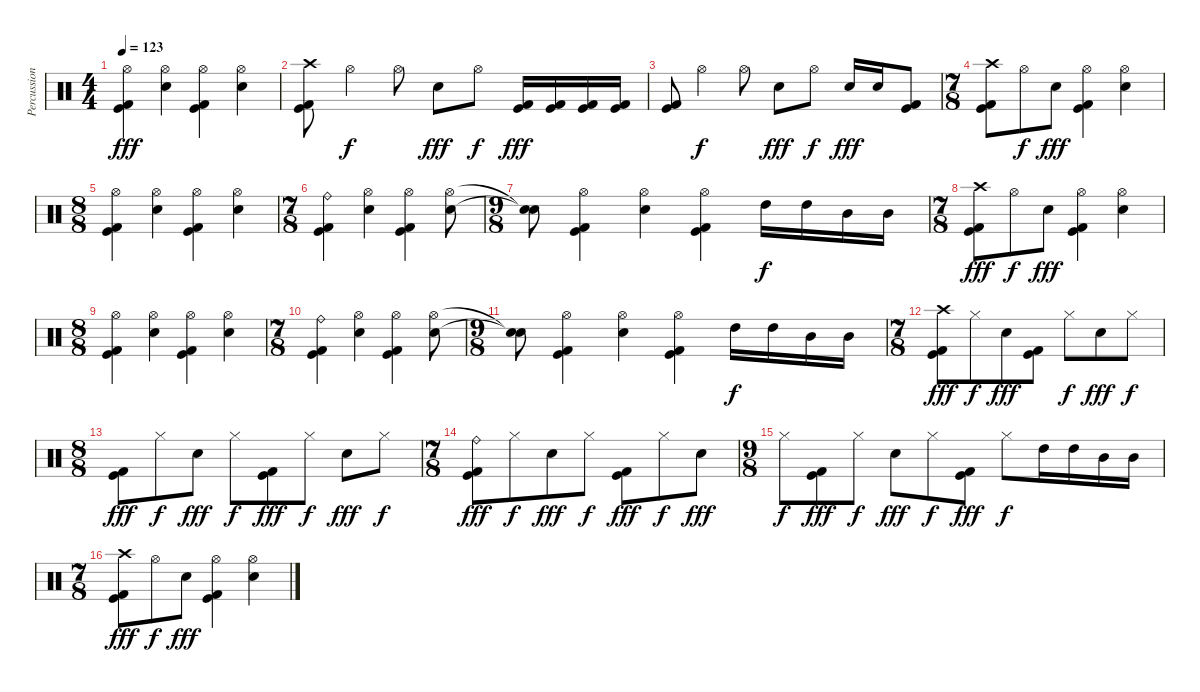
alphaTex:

\track ("Percussion" "Percussion") {instrument percussion}
\staff {score}
\articulation defaults
\ts (4 4)
\tempo 123
\clef neutral
\ks c
("Hi-Hat (open)" "Kick (hit) 2" "Kick (hit)").4{dy fff} ("Hi-Hat (open)" "Electric Snare (hit)").4 ("Hi-Hat (open)" "Kick (hit) 2" "Kick (hit)").4 ("Hi-Hat (open)" "Electric Snare (hit)").4 |
("Crash high (hit)" "Kick (hit) 2" "Kick (hit)").8 "Hi-Hat (open)".4{dy f} "Hi-Hat (open)".8 "Electric Snare (hit)".8{dy fff} "Hi-Hat (open)".8{dy f} ("Kick (hit)" "Kick (hit) 2").16{dy fff} ("Kick (hit)" "Kick (hit) 2").16 ("Kick (hit)" "Kick (hit) 2").16 ("Kick (hit)" "Kick (hit) 2").16 |
("Kick (hit) 2" "Kick (hit)").8 "Hi-Hat (open)".4{dy f} "Hi-Hat (open)".8 "Electric Snare (hit)".8{dy fff} "Hi-Hat (open)".8{dy f} "Electric Snare (hit)".16{dy fff} "Electric Snare (hit)".16 ("Kick (hit) 2" "Kick (hit)").8 |
\ts (7 8)
("Crash high (hit)" "Kick (hit) 2" "Kick (hit)").8 "Hi-Hat (open)".8{dy f} "Electric Snare (hit)".8{dy fff} ("Hi-Hat (open)" "Kick (hit) 2" "Kick (hit)").4 ("Hi-Hat (open)" "Electric Snare (hit)").4 |
\ts (8 8)
("Hi-Hat (open)" "Kick (hit) 2" "Kick (hit)").4 ("Hi-Hat (open)" "Electric Snare (hit)").4 ("Hi-Hat (open)" "Kick (hit) 2" "Kick (hit)").4 ("Hi-Hat (open)" "Electric Snare (hit)").4 |
\ts (7 8)
("Ride (bell)" "Kick (hit) 2" "Kick (hit)").4 ("Hi-Hat (open)" "Electric Snare (hit)").4 ("Hi-Hat (open)" "Kick (hit) 2" "Kick (hit)").4 ("Hi-Hat (open)" "Electric Snare (hit)").8 |
\ts (9 8)
("Snare (hit)"{t} "Snare (hit)"{t}).8 ("Hi-Hat (open)" "Kick (hit) 2" "Kick (hit)").4 ("Hi-Hat (open)" "Electric Snare (hit)").4 ("Hi-Hat (open)" "Kick (hit) 2" "Kick (hit)").4 "High Tom (hit)".16{dy f} "High Tom (hit)".16 "Mid Tom (hit)".16 "Mid Tom (hit)".16 |
\ts (7 8)
("Crash high (hit)" "Kick (hit) 2" "Kick (hit)").8{dy fff} "Hi-Hat (open)".8{dy f} "Electric Snare (hit)".8{dy fff} ("Hi-Hat (open)" "Kick (hit) 2" "Kick (hit)").4 ("Hi-Hat (open)" "Electric Snare (hit)").4 |
\ts (8 8)
("Hi-Hat (open)" "Kick (hit) 2" "Kick (hit)").4 ("Hi-Hat (open)" "Electric Snare (hit)").4 ("Hi-Hat (open)" "Kick (hit) 2" "Kick (hit)").4 ("Hi-Hat (open)" "Electric Snare (hit)").4 |
\ts (7 8)
("Ride (bell)" "Kick (hit) 2" "Kick (hit)").4 ("Hi-Hat (open)" "Electric Snare (hit)").4 ("Hi-Hat (open)" "Kick (hit) 2" "Kick (hit)").4 ("Hi-Hat (open)" "Electric Snare (hit)").8 |
\ts (9 8)
("Snare (hit)"{t} "Snare (hit)"{t}).8 ("Hi-Hat (open)" "Kick (hit) 2" "Kick (hit)").4 ("Hi-Hat (open)" "Electric Snare (hit)").4 ("Hi-Hat (open)" "Kick (hit) 2" "Kick (hit)").4 "High Tom (hit)".16{dy f} "High Tom (hit)".16 "Mid Tom (hit)".16 "Mid Tom (hit)".16 |
\ts (7 8)
("Crash high (hit)" "Kick (hit) 2" "Kick (hit)").8{dy fff} "Hi-Hat (closed)".8{dy f} "Electric Snare (hit)".8{dy fff} ("Kick (hit) 2" "Kick (hit)").8 "Hi-Hat (closed)".8{dy f} "Electric Snare (hit)".8{dy fff} "Hi-Hat (closed)".8{dy f} |
\ts (8 8)
("Kick (hit) 2" "Kick (hit)").8{dy fff} "Hi-Hat (closed)".8{dy f} "Electric Snare (hit)".8{dy fff} "Hi-Hat (closed)".8{dy f} ("Kick (hit) 2" "Kick (hit)").8{dy fff} "Hi-Hat (closed)".8{dy f} "Electric Snare (hit)".8{dy fff} "Hi-Hat (closed)".8{dy f} |
\ts (7 8)
("Ride (bell)" "Kick (hit) 2" "Kick (hit)").8{dy fff} "Hi-Hat (closed)".8{dy f} "Electric Snare (hit)".8{dy fff} "Hi-Hat (closed)".8{dy f} ("Kick (hit) 2" "Kick (hit)").8{dy fff} "Hi-Hat (closed)".8{dy f} "Electric Snare (hit)".8{dy fff} |
\ts (9 8)
"Hi-Hat (closed)".8{dy f} ("Kick (hit) 2" "Kick (hit)").8{dy fff} "Hi-Hat (closed)".8{dy f} "Electric Snare (hit)".8{dy fff} "Hi-Hat (closed)".8{dy f} ("Kick (hit) 2" "Kick (hit)").8{dy fff} "Hi-Hat (closed)".8{dy f} "High Tom (hit)".16 "High Tom (hit)".16 "Mid Tom (hit)".16 "Mid Tom (hit)".16 |
\ts (7 8)
("Crash high (hit)" "Kick (hit) 2" "Kick (hit)").8{dy fff} "Hi-Hat (open)".8{dy f} "Electric Snare (hit)".8{dy fff} ("Hi-Hat (open)" "Kick (hit) 2" "Kick (hit)").4 ("Hi-Hat (open)" "Electric Snare (hit)").4
